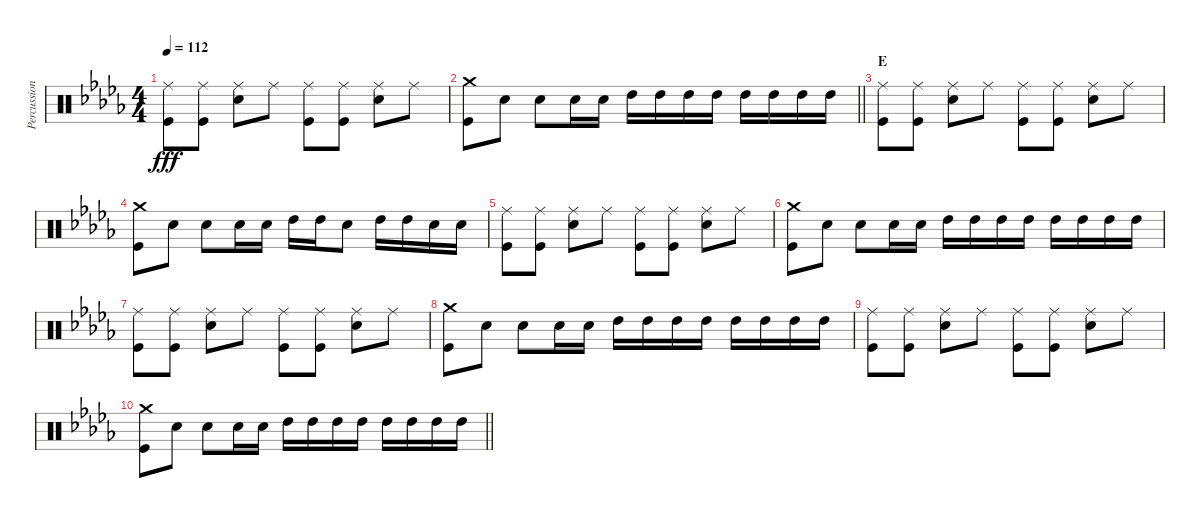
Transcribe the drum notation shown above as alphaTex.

\track ("Percussioni" "Percussion") {instrument percussion}
\staff {score}
\articulation defaults
\ts (4 4)
\tempo 112
\clef neutral
\ks db
("Ride (middle)" "Kick (hit)").8{dy fff} ("Ride (middle)" "Kick (hit)").8 ("Ride (middle)" "Snare (hit) 2").8 "Ride (middle)".8 ("Ride (middle)" "Kick (hit)").8 ("Ride (middle)" "Kick (hit)").8 ("Ride (middle)" "Snare (hit) 2").8 "Ride (middle)".8 |
\barLineRight lightlight
("Crash medium (hit)" "Kick (hit)").8 "Snare (hit) 2".8 "Snare (hit) 2".8 "Snare (hit) 2".16 "Snare (hit) 2".16 "High Tom (hit)".16 "High Tom (hit)".16 "High Tom (hit)".16 "High Tom (hit)".16 "High Tom (hit)".16 "High Tom (hit)".16 "High Tom (hit)".16 "High Tom (hit)".16 |
\section ("" "E")
("Ride (middle)" "Kick (hit)").8{volume 4} ("Ride (middle)" "Kick (hit)").8 ("Ride (middle)" "Snare (hit) 2").8 "Ride (middle)".8 ("Ride (middle)" "Kick (hit)").8 ("Ride (middle)" "Kick (hit)").8 ("Ride (middle)" "Snare (hit) 2").8 "Ride (middle)".8 |
("Crash medium (hit)" "Kick (hit)").8 "Snare (hit) 2".8 "Snare (hit) 2".8 "Snare (hit) 2".16 "Snare (hit) 2".16 "High Tom (hit)".16 "High Tom (hit)".16 "Snare (hit) 2".8 "High Tom (hit)".16 "High Tom (hit)".16 "Snare (hit) 2".16 "Snare (hit) 2".16 |
("Ride (middle)" "Kick (hit)").8 ("Ride (middle)" "Kick (hit)").8 ("Ride (middle)" "Snare (hit) 2").8 "Ride (middle)".8 ("Ride (middle)" "Kick (hit)").8 ("Ride (middle)" "Kick (hit)").8 ("Ride (middle)" "Snare (hit) 2").8 "Ride (middle)".8 |
("Crash medium (hit)" "Kick (hit)").8 "Snare (hit) 2".8 "Snare (hit) 2".8 "Snare (hit) 2".16 "Snare (hit) 2".16 "High Tom (hit)".16 "High Tom (hit)".16 "High Tom (hit)".16 "High Tom (hit)".16 "High Tom (hit)".16 "High Tom (hit)".16 "High Tom (hit)".16 "High Tom (hit)".16 |
("Ride (middle)" "Kick (hit)").8{volume 0} ("Ride (middle)" "Kick (hit)").8 ("Ride (middle)" "Snare (hit) 2").8 "Ride (middle)".8 ("Ride (middle)" "Kick (hit)").8 ("Ride (middle)" "Kick (hit)").8 ("Ride (middle)" "Snare (hit) 2").8 "Ride (middle)".8 |
("Crash medium (hit)" "Kick (hit)").8 "Snare (hit) 2".8 "Snare (hit) 2".8 "Snare (hit) 2".16 "Snare (hit) 2".16 "High Tom (hit)".16 "High Tom (hit)".16 "High Tom (hit)".16 "High Tom (hit)".16 "High Tom (hit)".16 "High Tom (hit)".16 "High Tom (hit)".16 "High Tom (hit)".16 |
("Ride (middle)" "Kick (hit)").8 ("Ride (middle)" "Kick (hit)").8 ("Ride (middle)" "Snare (hit) 2").8 "Ride (middle)".8 ("Ride (middle)" "Kick (hit)").8 ("Ride (middle)" "Kick (hit)").8 ("Ride (middle)" "Snare (hit) 2").8 "Ride (middle)".8 |
\barLineRight lightlight
("Crash medium (hit)" "Kick (hit)").8 "Snare (hit) 2".8 "Snare (hit) 2".8 "Snare (hit) 2".16 "Snare (hit) 2".16 "High Tom (hit)".16 "High Tom (hit)".16 "High Tom (hit)".16 "High Tom (hit)".16 "High Tom (hit)".16 "High Tom (hit)".16 "High Tom (hit)".16 "High Tom (hit)".16
